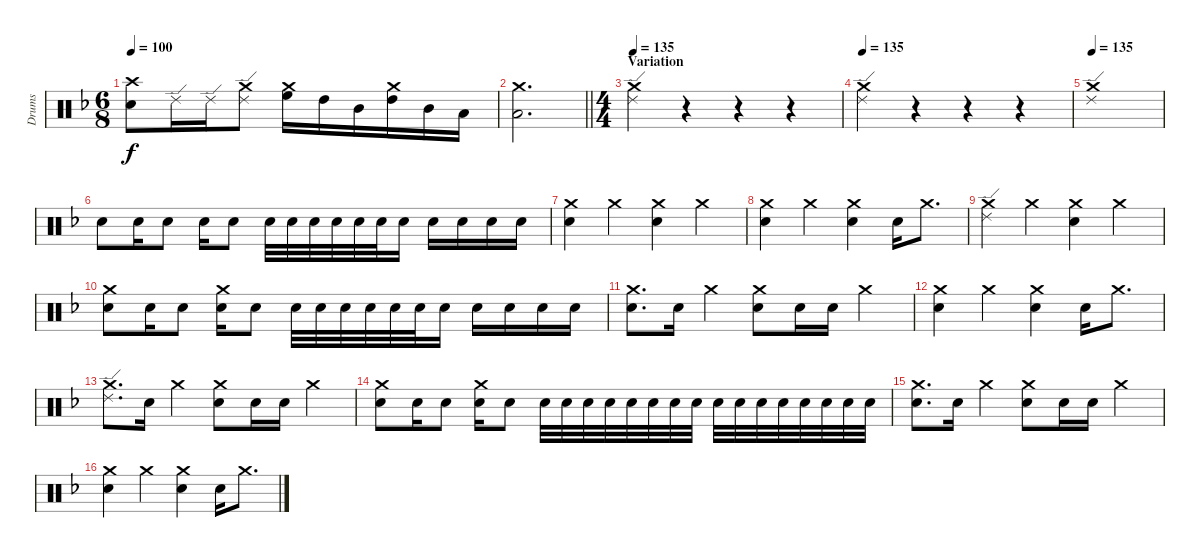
\track ("Drums" "Drums") {instrument percussion}
\staff {score}
\articulation defaults
\ts (6 8)
\tempo 100
\clef neutral
\ks dminor
("Crash high (hit)" "Snare (hit) 2").8{dy f} "Ride (edge) 2".16 "Ride (edge) 2".16 ("Ride (edge) 2" "Crash medium (hit)").8 ("Crash medium (hit)" "High Floor Tom (hit)").16 "High Tom (hit)".16 "Mid Tom (hit)".16 ("Crash medium (hit)" "High Tom (hit)").16 "Mid Tom (hit)".16 "Low Tom (hit)".16 |
\barLineRight lightlight
("Crash medium (hit)" "Low Floor Tom (hit)").2{d} |
\ts (4 4)
\section ("" "Variation")
\tempo 140
\tempo 135
("Ride (edge) 2" "Crash medium (hit)").4 r.4 r.4 r.4 |
\tempo 135
("Ride (edge) 2" "Crash medium (hit)").4 r.4 r.4 r.4 |
\tempo 135
("Ride (edge) 2" "Crash medium (hit)").1 |
"Snare (hit) 2".8 "Snare (hit) 2".16 "Snare (hit) 2".8 "Snare (hit) 2".16 "Snare (hit) 2".8 "Snare (hit) 2".32 "Snare (hit) 2".32 "Snare (hit) 2".32 "Snare (hit) 2".32 "Snare (hit) 2".32 "Snare (hit) 2".32 "Snare (hit) 2".16 "Snare (hit) 2".16 "Snare (hit) 2".16 "Snare (hit) 2".16 "Snare (hit) 2".16 |
("Crash medium (hit)" "Snare (hit) 2").4 "Crash medium (hit)".4 ("Crash medium (hit)" "Snare (hit) 2").4 "Crash medium (hit)".4 |
("Crash medium (hit)" "Snare (hit) 2").4 "Crash medium (hit)".4 ("Crash medium (hit)" "Snare (hit) 2").4 "Snare (hit) 2".16 "Crash medium (hit)".8{d} |
("Ride (edge) 2" "Crash medium (hit)").4 "Crash medium (hit)".4 ("Crash medium (hit)" "Snare (hit) 2").4 "Crash medium (hit)".4 |
("Crash medium (hit)" "Snare (hit) 2").8 "Snare (hit) 2".16 "Snare (hit) 2".8 ("Crash medium (hit)" "Snare (hit) 2").16 "Snare (hit) 2".8 "Snare (hit) 2".32 "Snare (hit) 2".32 "Snare (hit) 2".32 "Snare (hit) 2".32 "Snare (hit) 2".32 "Snare (hit) 2".32 "Snare (hit) 2".16 "Snare (hit) 2".16 "Snare (hit) 2".16 "Snare (hit) 2".16 "Snare (hit) 2".16 |
("Crash medium (hit)" "Snare (hit) 2").8{d} "Snare (hit) 2".16 "Crash medium (hit)".4 ("Crash medium (hit)" "Snare (hit) 2").8 "Snare (hit) 2".16 "Snare (hit) 2".16 "Crash medium (hit)".4 |
("Crash medium (hit)" "Snare (hit) 2").4 "Crash medium (hit)".4 ("Crash medium (hit)" "Snare (hit) 2").4 "Snare (hit) 2".16 "Crash medium (hit)".8{d} |
("Ride (edge) 2" "Crash medium (hit)").8{d} "Snare (hit) 2".16 "Crash medium (hit)".4 ("Crash medium (hit)" "Snare (hit) 2").8 "Snare (hit) 2".16 "Snare (hit) 2".16 "Crash medium (hit)".4 |
("Crash medium (hit)" "Snare (hit) 2").8 "Snare (hit) 2".16 "Snare (hit) 2".8 ("Crash medium (hit)" "Snare (hit) 2").16 "Snare (hit) 2".8 "Snare (hit) 2".32 "Snare (hit) 2".32 "Snare (hit) 2".32 "Snare (hit) 2".32 "Snare (hit) 2".32 "Snare (hit) 2".32 "Snare (hit) 2".32 "Snare (hit) 2".32 "Snare (hit) 2".32 "Snare (hit) 2".32 "Snare (hit) 2".32 "Snare (hit) 2".32 "Snare (hit) 2".32 "Snare (hit) 2".32 "Snare (hit) 2".32 "Snare (hit) 2".32 |
("Crash medium (hit)" "Snare (hit) 2").8{d} "Snare (hit) 2".16 "Crash medium (hit)".4 ("Crash medium (hit)" "Snare (hit) 2").8 "Snare (hit) 2".16 "Snare (hit) 2".16 "Crash medium (hit)".4 |
("Crash medium (hit)" "Snare (hit) 2").4 "Crash medium (hit)".4 ("Crash medium (hit)" "Snare (hit) 2").4 "Snare (hit) 2".16 "Crash medium (hit)".8{d}
